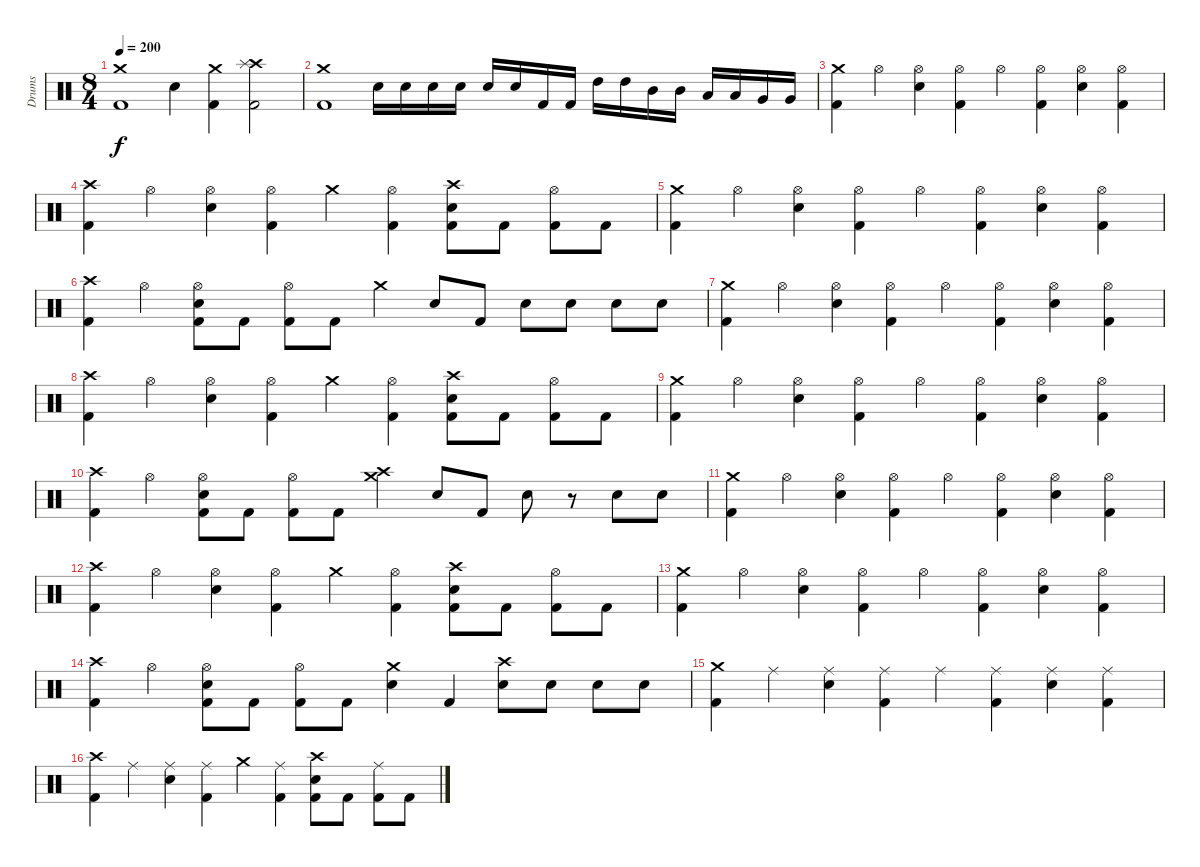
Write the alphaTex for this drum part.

\track ("Drums" "Drums") {instrument percussion}
\staff {score}
\articulation defaults
\ts (8 4)
\tempo 200
\clef neutral
\ks c
("Crash medium (hit)" "Kick (hit) 2").1{dy f} "Electric Snare (hit)".4 ("Crash medium (hit)" "Kick (hit) 2").4 ("Crash high (hit)" "Splash (hit)" "Kick (hit) 2").2 |
("Crash medium (hit)" "Kick (hit) 2").1 "Electric Snare (hit)".16 "Electric Snare (hit)".16 "Electric Snare (hit)".16 "Electric Snare (hit)".16 "Electric Snare (hit)".16 "Electric Snare (hit)".16 "Kick (hit) 2".16 "Kick (hit) 2".16 "High Tom (hit)".16 "High Tom (hit)".16 "Mid Tom (hit)".16 "Mid Tom (hit)".16 "Low Tom (hit)".16 "Low Tom (hit)".16 "Very Low Tom (hit)".16 "Very Low Tom (hit)".16 |
("Crash medium (hit)" "Kick (hit) 2").4 "Hi-Hat (open)".4 ("Hi-Hat (open)" "Electric Snare (hit)").4 ("Hi-Hat (open)" "Kick (hit) 2").4 "Hi-Hat (open)".4 ("Hi-Hat (open)" "Kick (hit) 2").4 ("Hi-Hat (open)" "Electric Snare (hit)").4 ("Hi-Hat (open)" "Kick (hit) 2").4 |
("Crash high (hit)" "Kick (hit) 2").4 "Hi-Hat (open)".4 ("Hi-Hat (open)" "Electric Snare (hit)").4 ("Hi-Hat (open)" "Kick (hit) 2").4 "Crash medium (hit)".4 ("Hi-Hat (open)" "Kick (hit) 2").4 ("Crash high (hit)" "Electric Snare (hit)" "Kick (hit) 2").8 "Kick (hit) 2".8 ("Hi-Hat (open)" "Kick (hit) 2").8 "Kick (hit) 2".8 |
("Crash medium (hit)" "Kick (hit) 2").4 "Hi-Hat (open)".4 ("Hi-Hat (open)" "Electric Snare (hit)").4 ("Hi-Hat (open)" "Kick (hit) 2").4 "Hi-Hat (open)".4 ("Hi-Hat (open)" "Kick (hit) 2").4 ("Hi-Hat (open)" "Electric Snare (hit)").4 ("Hi-Hat (open)" "Kick (hit) 2").4 |
("Crash high (hit)" "Kick (hit) 2").4 "Hi-Hat (open)".4 ("Hi-Hat (open)" "Electric Snare (hit)" "Kick (hit) 2").8 "Kick (hit) 2".8 ("Hi-Hat (open)" "Kick (hit) 2").8 "Kick (hit) 2".8 "Crash medium (hit)".4 "Electric Snare (hit)".8 "Kick (hit) 2".8 "Electric Snare (hit)".8 "Electric Snare (hit)".8 "Electric Snare (hit)".8 "Electric Snare (hit)".8 |
("Crash medium (hit)" "Kick (hit) 2").4 "Hi-Hat (open)".4 ("Hi-Hat (open)" "Electric Snare (hit)").4 ("Hi-Hat (open)" "Kick (hit) 2").4 "Hi-Hat (open)".4 ("Hi-Hat (open)" "Kick (hit) 2").4 ("Hi-Hat (open)" "Electric Snare (hit)").4 ("Hi-Hat (open)" "Kick (hit) 2").4 |
("Crash high (hit)" "Kick (hit) 2").4 "Hi-Hat (open)".4 ("Hi-Hat (open)" "Electric Snare (hit)").4 ("Hi-Hat (open)" "Kick (hit) 2").4 "Crash medium (hit)".4 ("Hi-Hat (open)" "Kick (hit) 2").4 ("Crash high (hit)" "Electric Snare (hit)" "Kick (hit) 2").8 "Kick (hit) 2".8 ("Hi-Hat (open)" "Kick (hit) 2").8 "Kick (hit) 2".8 |
("Crash medium (hit)" "Kick (hit) 2").4 "Hi-Hat (open)".4 ("Hi-Hat (open)" "Electric Snare (hit)").4 ("Hi-Hat (open)" "Kick (hit) 2").4 "Hi-Hat (open)".4 ("Hi-Hat (open)" "Kick (hit) 2").4 ("Hi-Hat (open)" "Electric Snare (hit)").4 ("Hi-Hat (open)" "Kick (hit) 2").4 |
("Crash high (hit)" "Kick (hit) 2").4 "Hi-Hat (open)".4 ("Hi-Hat (open)" "Electric Snare (hit)" "Kick (hit) 2").8 "Kick (hit) 2".8 ("Hi-Hat (open)" "Kick (hit) 2").8 "Kick (hit) 2".8 ("Crash medium (hit)" "Crash high (hit)").4 "Electric Snare (hit)".8 "Kick (hit) 2".8 "Electric Snare (hit)".8 r.8 "Electric Snare (hit)".8 "Electric Snare (hit)".8 |
("Crash medium (hit)" "Kick (hit) 2").4 "Hi-Hat (open)".4 ("Hi-Hat (open)" "Electric Snare (hit)").4 ("Hi-Hat (open)" "Kick (hit) 2").4 "Hi-Hat (open)".4 ("Hi-Hat (open)" "Kick (hit) 2").4 ("Hi-Hat (open)" "Electric Snare (hit)").4 ("Hi-Hat (open)" "Kick (hit) 2").4 |
("Crash high (hit)" "Kick (hit) 2").4 "Hi-Hat (open)".4 ("Hi-Hat (open)" "Electric Snare (hit)").4 ("Hi-Hat (open)" "Kick (hit) 2").4 "Crash medium (hit)".4 ("Hi-Hat (open)" "Kick (hit) 2").4 ("Crash high (hit)" "Electric Snare (hit)" "Kick (hit) 2").8 "Kick (hit) 2".8 ("Hi-Hat (open)" "Kick (hit) 2").8 "Kick (hit) 2".8 |
("Crash medium (hit)" "Kick (hit) 2").4 "Hi-Hat (open)".4 ("Hi-Hat (open)" "Electric Snare (hit)").4 ("Hi-Hat (open)" "Kick (hit) 2").4 "Hi-Hat (open)".4 ("Hi-Hat (open)" "Kick (hit) 2").4 ("Hi-Hat (open)" "Electric Snare (hit)").4 ("Hi-Hat (open)" "Kick (hit) 2").4 |
("Crash high (hit)" "Kick (hit) 2").4 "Hi-Hat (open)".4 ("Hi-Hat (open)" "Electric Snare (hit)" "Kick (hit) 2").8 "Kick (hit) 2".8 ("Hi-Hat (open)" "Kick (hit) 2").8 "Kick (hit) 2".8 ("Crash medium (hit)" "Electric Snare (hit)").4 "Kick (hit) 2".4 ("Crash high (hit)" "Electric Snare (hit)").8 "Electric Snare (hit)".8 "Electric Snare (hit)".8 "Electric Snare (hit)".8 |
("Crash medium (hit)" "Kick (hit) 2").4 "Ride (middle)".4 ("Ride (middle)" "Electric Snare (hit)").4 ("Ride (middle)" "Kick (hit) 2").4 "Ride (middle)".4 ("Ride (middle)" "Kick (hit) 2").4 ("Ride (middle)" "Electric Snare (hit)").4 ("Ride (middle)" "Kick (hit) 2").4 |
("Crash high (hit)" "Kick (hit) 2").4 "Ride (middle)".4 ("Ride (middle)" "Electric Snare (hit)").4 ("Ride (middle)" "Kick (hit) 2").4 "Crash medium (hit)".4 ("Ride (middle)" "Kick (hit) 2").4 ("Crash high (hit)" "Electric Snare (hit)" "Kick (hit) 2").8 "Kick (hit) 2".8 ("Ride (middle)" "Kick (hit) 2").8 "Kick (hit) 2".8
